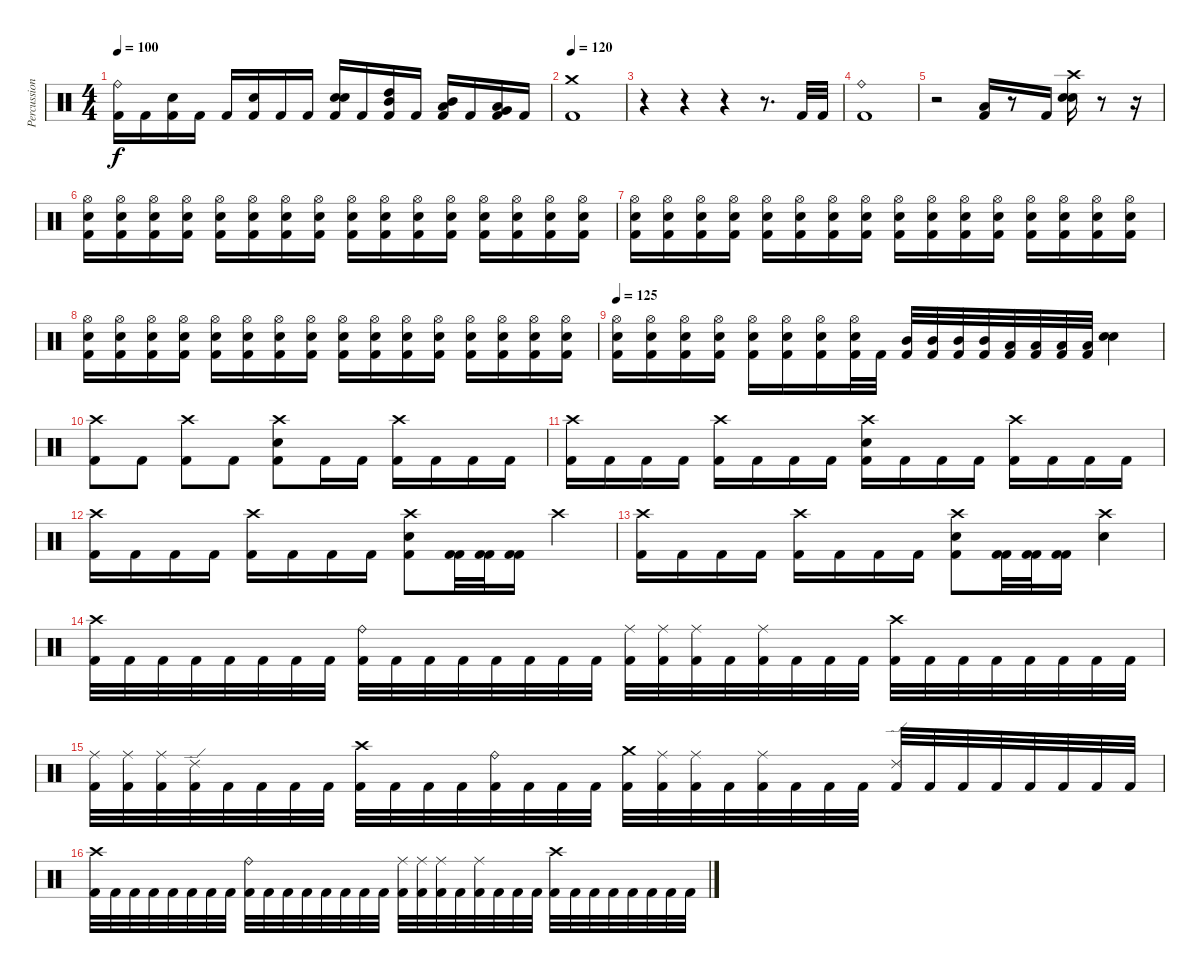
\track ("Percussion" "Percussion") {instrument percussion}
\staff {score}
\articulation defaults
\ts (4 4)
\tempo 100
\clef neutral
\ks c
("Ride (bell)" "Kick (hit) 2").16{dy f} "Kick (hit) 2".16 ("Electric Snare (hit)" "Kick (hit) 2").16 "Kick (hit) 2".16 "Kick (hit) 2".16 ("Electric Snare (hit)" "Kick (hit) 2").16 "Kick (hit) 2".16 "Kick (hit) 2".16 ("Electric Snare (hit)" "Electric Snare (hit)" "Kick (hit) 2").16 "Kick (hit) 2".16 ("Mid Tom (hit)" "High Tom (hit)" "Kick (hit) 2").16 "Kick (hit) 2".16 ("Mid Tom (hit)" "Low Tom (hit)" "Kick (hit) 2").16 "Kick (hit) 2".16 ("Very Low Tom (hit)" "Low Tom (hit)" "Kick (hit) 2").16 "Kick (hit) 2".16 |
\tempo 120
("Crash medium (hit)" "Kick (hit) 2").1 |
r.4 r.4 r.4 r.8{d} "Kick (hit) 2".32 "Kick (hit) 2".32 |
("Ride (bell)" "Kick (hit) 2").1 |
r.2 ("Kick (hit) 2" "Low Tom (hit)").16 r.8 "Kick (hit) 2".16 ("Electric Snare (hit)" "Electric Snare (hit)" "Crash high (hit)").16{bd 60} r.8 r.16 |
("Hi-Hat (open)" "Electric Snare (hit)" "Kick (hit) 2").16{volume 13} ("Hi-Hat (open)" "Electric Snare (hit)" "Kick (hit) 2").16 ("Hi-Hat (open)" "Electric Snare (hit)" "Kick (hit) 2").16 ("Hi-Hat (open)" "Electric Snare (hit)" "Kick (hit) 2").16 ("Hi-Hat (open)" "Electric Snare (hit)" "Kick (hit) 2").16 ("Hi-Hat (open)" "Electric Snare (hit)" "Kick (hit) 2").16 ("Hi-Hat (open)" "Electric Snare (hit)" "Kick (hit) 2").16 ("Hi-Hat (open)" "Electric Snare (hit)" "Kick (hit) 2").16 ("Hi-Hat (open)" "Electric Snare (hit)" "Kick (hit) 2").16 ("Hi-Hat (open)" "Electric Snare (hit)" "Kick (hit) 2").16 ("Hi-Hat (open)" "Electric Snare (hit)" "Kick (hit) 2").16 ("Hi-Hat (open)" "Electric Snare (hit)" "Kick (hit) 2").16 ("Hi-Hat (open)" "Electric Snare (hit)" "Kick (hit) 2").16 ("Hi-Hat (open)" "Electric Snare (hit)" "Kick (hit) 2").16 ("Hi-Hat (open)" "Electric Snare (hit)" "Kick (hit) 2").16 ("Hi-Hat (open)" "Electric Snare (hit)" "Kick (hit) 2").16 |
("Hi-Hat (open)" "Electric Snare (hit)" "Kick (hit) 2").16 ("Hi-Hat (open)" "Electric Snare (hit)" "Kick (hit) 2").16 ("Hi-Hat (open)" "Electric Snare (hit)" "Kick (hit) 2").16 ("Hi-Hat (open)" "Electric Snare (hit)" "Kick (hit) 2").16 ("Hi-Hat (open)" "Electric Snare (hit)" "Kick (hit) 2").16 ("Hi-Hat (open)" "Electric Snare (hit)" "Kick (hit) 2").16 ("Hi-Hat (open)" "Electric Snare (hit)" "Kick (hit) 2").16 ("Hi-Hat (open)" "Electric Snare (hit)" "Kick (hit) 2").16 ("Hi-Hat (open)" "Electric Snare (hit)" "Kick (hit) 2").16 ("Hi-Hat (open)" "Electric Snare (hit)" "Kick (hit) 2").16 ("Hi-Hat (open)" "Electric Snare (hit)" "Kick (hit) 2").16 ("Hi-Hat (open)" "Electric Snare (hit)" "Kick (hit) 2").16 ("Hi-Hat (open)" "Electric Snare (hit)" "Kick (hit) 2").16 ("Hi-Hat (open)" "Electric Snare (hit)" "Kick (hit) 2").16 ("Hi-Hat (open)" "Electric Snare (hit)" "Kick (hit) 2").16 ("Hi-Hat (open)" "Electric Snare (hit)" "Kick (hit) 2").16 |
("Hi-Hat (open)" "Electric Snare (hit)" "Kick (hit) 2").16 ("Hi-Hat (open)" "Electric Snare (hit)" "Kick (hit) 2").16 ("Hi-Hat (open)" "Electric Snare (hit)" "Kick (hit) 2").16 ("Hi-Hat (open)" "Electric Snare (hit)" "Kick (hit) 2").16 ("Hi-Hat (open)" "Electric Snare (hit)" "Kick (hit) 2").16 ("Hi-Hat (open)" "Electric Snare (hit)" "Kick (hit) 2").16 ("Hi-Hat (open)" "Electric Snare (hit)" "Kick (hit) 2").16 ("Hi-Hat (open)" "Electric Snare (hit)" "Kick (hit) 2").16 ("Hi-Hat (open)" "Electric Snare (hit)" "Kick (hit) 2").16 ("Hi-Hat (open)" "Electric Snare (hit)" "Kick (hit) 2").16 ("Hi-Hat (open)" "Electric Snare (hit)" "Kick (hit) 2").16 ("Hi-Hat (open)" "Electric Snare (hit)" "Kick (hit) 2").16 ("Hi-Hat (open)" "Electric Snare (hit)" "Kick (hit) 2").16 ("Hi-Hat (open)" "Electric Snare (hit)" "Kick (hit) 2").16 ("Hi-Hat (open)" "Electric Snare (hit)" "Kick (hit) 2").16 ("Hi-Hat (open)" "Electric Snare (hit)" "Kick (hit) 2").16 |
\tempo 125
("Hi-Hat (open)" "Electric Snare (hit)" "Kick (hit) 2").16 ("Hi-Hat (open)" "Electric Snare (hit)" "Kick (hit) 2").16 ("Hi-Hat (open)" "Electric Snare (hit)" "Kick (hit) 2").16 ("Hi-Hat (open)" "Electric Snare (hit)" "Kick (hit) 2").16 ("Hi-Hat (open)" "Electric Snare (hit)" "Kick (hit) 2").16 ("Hi-Hat (open)" "Electric Snare (hit)" "Kick (hit) 2").16 ("Hi-Hat (open)" "Electric Snare (hit)" "Kick (hit) 2").16 ("Hi-Hat (open)" "Electric Snare (hit)" "Kick (hit) 2").32 "Kick (hit) 2".32 ("Mid Tom (hit)" "Kick (hit) 2").32 ("Mid Tom (hit)" "Kick (hit) 2").32 ("Mid Tom (hit)" "Kick (hit) 2").32 ("Mid Tom (hit)" "Kick (hit) 2").32 ("Low Tom (hit)" "Kick (hit) 2").32 ("Low Tom (hit)" "Kick (hit) 2").32 ("Low Tom (hit)" "Kick (hit) 2").32 ("Low Tom (hit)" "Kick (hit) 2").32 ("Electric Snare (hit)" "Electric Snare (hit)").4 |
("Crash high (hit)" "Kick (hit) 2").8{volume 16} "Kick (hit) 2".8 ("Crash high (hit)" "Kick (hit) 2").8 "Kick (hit) 2".8 ("Crash high (hit)" "Electric Snare (hit)" "Kick (hit) 2").8 "Kick (hit) 2".16 "Kick (hit) 2".16 ("Crash high (hit)" "Kick (hit) 2").16 "Kick (hit) 2".16 "Kick (hit) 2".16 "Kick (hit) 2".16 |
("Crash high (hit)" "Kick (hit) 2").16 "Kick (hit) 2".16 "Kick (hit) 2".16 "Kick (hit) 2".16 ("Crash high (hit)" "Kick (hit) 2").16 "Kick (hit) 2".16 "Kick (hit) 2".16 "Kick (hit) 2".16 ("Crash high (hit)" "Electric Snare (hit)" "Kick (hit) 2").16 "Kick (hit) 2".16 "Kick (hit) 2".16 "Kick (hit) 2".16 ("Crash high (hit)" "Kick (hit) 2").16 "Kick (hit) 2".16 "Kick (hit) 2".16 "Kick (hit) 2".16 |
("Crash high (hit)" "Kick (hit) 2").16 "Kick (hit) 2".16 "Kick (hit) 2".16 "Kick (hit) 2".16 ("Crash high (hit)" "Kick (hit) 2").16 "Kick (hit) 2".16 "Kick (hit) 2".16 "Kick (hit) 2".16 ("Crash high (hit)" "Electric Snare (hit)" "Kick (hit) 2").8 ("Kick (hit) 2" "Kick (hit) 2").32 ("Kick (hit) 2" "Kick (hit) 2").32 ("Kick (hit) 2" "Kick (hit) 2").16 "Crash high (hit)".4 |
("Crash high (hit)" "Kick (hit) 2").16 "Kick (hit) 2".16 "Kick (hit) 2".16 "Kick (hit) 2".16 ("Crash high (hit)" "Kick (hit) 2").16 "Kick (hit) 2".16 "Kick (hit) 2".16 "Kick (hit) 2".16 ("Crash high (hit)" "Electric Snare (hit)" "Kick (hit) 2").8 ("Kick (hit) 2" "Kick (hit) 2").32 ("Kick (hit) 2" "Kick (hit) 2").32 ("Kick (hit) 2" "Kick (hit) 2").16 ("Electric Snare (hit)" "Crash high (hit)").4 |
("Kick (hit) 2" "Crash high (hit)").32 "Kick (hit) 2".32 "Kick (hit) 2".32 "Kick (hit) 2".32 "Kick (hit) 2".32 "Kick (hit) 2".32 "Kick (hit) 2".32 "Kick (hit) 2".32 ("Kick (hit) 2" "Ride (bell)").32 "Kick (hit) 2".32 "Kick (hit) 2".32 "Kick (hit) 2".32 "Kick (hit) 2".32 "Kick (hit) 2".32 "Kick (hit) 2".32 "Kick (hit) 2".32 ("Kick (hit) 2" "Ride (middle)").32 ("Kick (hit) 2" "Ride (middle)").32 ("Kick (hit) 2" "Ride (middle)").32 "Kick (hit) 2".32 ("Kick (hit) 2" "Ride (middle)").32 "Kick (hit) 2".32 "Kick (hit) 2".32 "Kick (hit) 2".32 ("Kick (hit) 2" "Crash high (hit)").32 "Kick (hit) 2".32 "Kick (hit) 2".32 "Kick (hit) 2".32 "Kick (hit) 2".32 "Kick (hit) 2".32 "Kick (hit) 2".32 "Kick (hit) 2".32 |
("Kick (hit) 2" "Ride (middle)").32 ("Kick (hit) 2" "Ride (middle)").32 ("Kick (hit) 2" "Ride (middle)").32 ("Kick (hit) 2" "Ride (edge) 2").32 "Kick (hit) 2".32 "Kick (hit) 2".32 "Kick (hit) 2".32 "Kick (hit) 2".32 ("Kick (hit) 2" "Crash high (hit)").32 "Kick (hit) 2".32 "Kick (hit) 2".32 "Kick (hit) 2".32 ("Kick (hit) 2" "Ride (bell)").32 "Kick (hit) 2".32 "Kick (hit) 2".32 "Kick (hit) 2".32 ("Kick (hit) 2" "Crash medium (hit)").32 ("Kick (hit) 2" "Ride (middle)").32 ("Kick (hit) 2" "Ride (middle)").32 "Kick (hit) 2".32 ("Kick (hit) 2" "Ride (middle)").32 "Kick (hit) 2".32 "Kick (hit) 2".32 "Kick (hit) 2".32 ("Kick (hit) 2" "Ride (edge) 2").32 "Kick (hit) 2".32 "Kick (hit) 2".32 "Kick (hit) 2".32 "Kick (hit) 2".32 "Kick (hit) 2".32 "Kick (hit) 2".32 "Kick (hit) 2".32 |
("Kick (hit) 2" "Crash high (hit)").32 "Kick (hit) 2".32 "Kick (hit) 2".32 "Kick (hit) 2".32 "Kick (hit) 2".32 "Kick (hit) 2".32 "Kick (hit) 2".32 "Kick (hit) 2".32 ("Kick (hit) 2" "Ride (bell)").32 "Kick (hit) 2".32 "Kick (hit) 2".32 "Kick (hit) 2".32 "Kick (hit) 2".32 "Kick (hit) 2".32 "Kick (hit) 2".32 "Kick (hit) 2".32 ("Kick (hit) 2" "Ride (middle)").32 ("Kick (hit) 2" "Ride (middle)").32 ("Kick (hit) 2" "Ride (middle)").32 "Kick (hit) 2".32 ("Kick (hit) 2" "Ride (middle)").32 "Kick (hit) 2".32 "Kick (hit) 2".32 "Kick (hit) 2".32 ("Kick (hit) 2" "Crash high (hit)").32 "Kick (hit) 2".32 "Kick (hit) 2".32 "Kick (hit) 2".32 "Kick (hit) 2".32 "Kick (hit) 2".32 "Kick (hit) 2".32 "Kick (hit) 2".32
